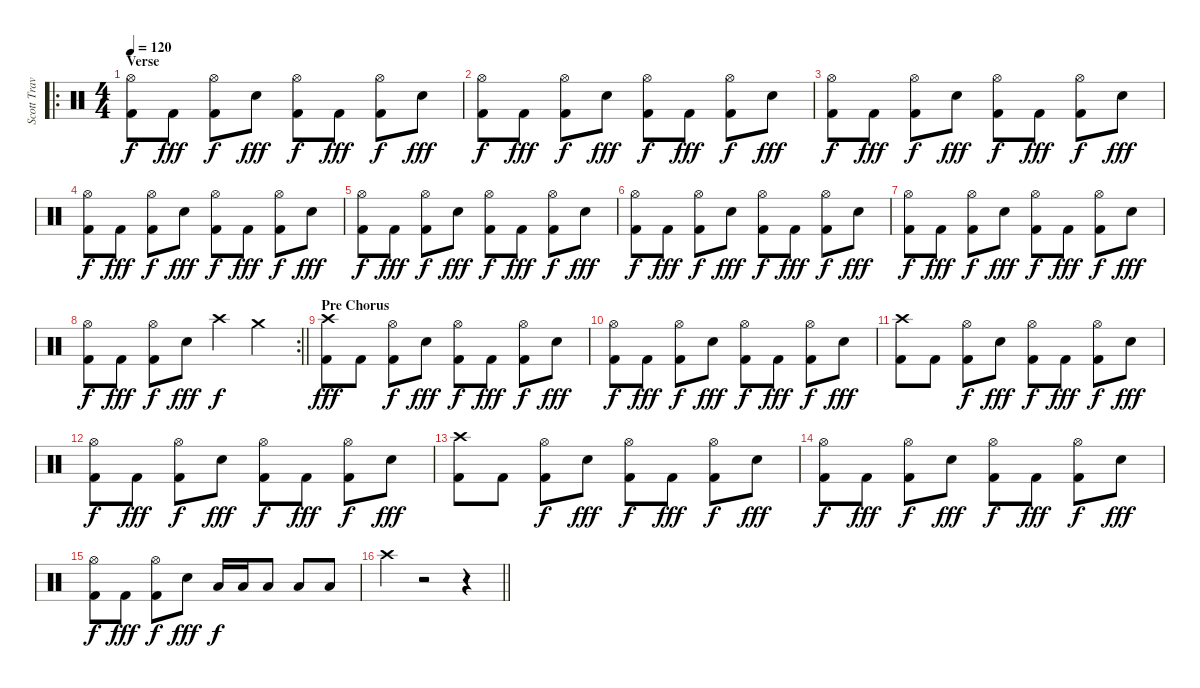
\track ("Scott Travis" "Scott Trav") {instrument percussion}
\staff {score}
\articulation defaults
\ro
\ts (4 4)
\section ("" "Verse")
\tempo 120
\clef neutral
\ks c
("Hi-Hat (open)" "Kick (hit) 2").8{dy f} "Kick (hit) 2".8{dy fff} ("Hi-Hat (open)" "Kick (hit) 2").8{dy f} "Electric Snare (hit)".8{dy fff} ("Hi-Hat (open)" "Kick (hit) 2").8{dy f} "Kick (hit) 2".8{dy fff} ("Hi-Hat (open)" "Kick (hit) 2").8{dy f} "Electric Snare (hit)".8{dy fff} |
("Hi-Hat (open)" "Kick (hit) 2").8{dy f} "Kick (hit) 2".8{dy fff} ("Hi-Hat (open)" "Kick (hit) 2").8{dy f} "Electric Snare (hit)".8{dy fff} ("Hi-Hat (open)" "Kick (hit) 2").8{dy f} "Kick (hit) 2".8{dy fff} ("Hi-Hat (open)" "Kick (hit) 2").8{dy f} "Electric Snare (hit)".8{dy fff} |
("Hi-Hat (open)" "Kick (hit) 2").8{dy f} "Kick (hit) 2".8{dy fff} ("Hi-Hat (open)" "Kick (hit) 2").8{dy f} "Electric Snare (hit)".8{dy fff} ("Hi-Hat (open)" "Kick (hit) 2").8{dy f} "Kick (hit) 2".8{dy fff} ("Hi-Hat (open)" "Kick (hit) 2").8{dy f} "Electric Snare (hit)".8{dy fff} |
("Hi-Hat (open)" "Kick (hit) 2").8{dy f} "Kick (hit) 2".8{dy fff} ("Hi-Hat (open)" "Kick (hit) 2").8{dy f} "Electric Snare (hit)".8{dy fff} ("Hi-Hat (open)" "Kick (hit) 2").8{dy f} "Kick (hit) 2".8{dy fff} ("Hi-Hat (open)" "Kick (hit) 2").8{dy f} "Electric Snare (hit)".8{dy fff} |
("Hi-Hat (open)" "Kick (hit) 2").8{dy f} "Kick (hit) 2".8{dy fff} ("Hi-Hat (open)" "Kick (hit) 2").8{dy f} "Electric Snare (hit)".8{dy fff} ("Hi-Hat (open)" "Kick (hit) 2").8{dy f} "Kick (hit) 2".8{dy fff} ("Hi-Hat (open)" "Kick (hit) 2").8{dy f} "Electric Snare (hit)".8{dy fff} |
("Hi-Hat (open)" "Kick (hit) 2").8{dy f} "Kick (hit) 2".8{dy fff} ("Hi-Hat (open)" "Kick (hit) 2").8{dy f} "Electric Snare (hit)".8{dy fff} ("Hi-Hat (open)" "Kick (hit) 2").8{dy f} "Kick (hit) 2".8{dy fff} ("Hi-Hat (open)" "Kick (hit) 2").8{dy f} "Electric Snare (hit)".8{dy fff} |
("Hi-Hat (open)" "Kick (hit) 2").8{dy f} "Kick (hit) 2".8{dy fff} ("Hi-Hat (open)" "Kick (hit) 2").8{dy f} "Electric Snare (hit)".8{dy fff} ("Hi-Hat (open)" "Kick (hit) 2").8{dy f} "Kick (hit) 2".8{dy fff} ("Hi-Hat (open)" "Kick (hit) 2").8{dy f} "Electric Snare (hit)".8{dy fff} |
\rc 2
\barLineRight lightlight
("Hi-Hat (open)" "Kick (hit) 2").8{dy f} "Kick (hit) 2".8{dy fff} ("Hi-Hat (open)" "Kick (hit) 2").8{dy f} "Electric Snare (hit)".8{dy fff} "Crash high (hit)".4{dy f} "Crash medium (hit)".4 |
\section ("" "Pre Chorus")
("Crash high (hit)" "Kick (hit) 2").8{dy fff} "Kick (hit) 2".8 ("Hi-Hat (open)" "Kick (hit) 2").8{dy f} "Electric Snare (hit)".8{dy fff} ("Hi-Hat (open)" "Kick (hit) 2").8{dy f} "Kick (hit) 2".8{dy fff} ("Hi-Hat (open)" "Kick (hit) 2").8{dy f} "Electric Snare (hit)".8{dy fff} |
("Hi-Hat (open)" "Kick (hit) 2").8{dy f} "Kick (hit) 2".8{dy fff} ("Hi-Hat (open)" "Kick (hit) 2").8{dy f} "Electric Snare (hit)".8{dy fff} ("Hi-Hat (open)" "Kick (hit) 2").8{dy f} "Kick (hit) 2".8{dy fff} ("Hi-Hat (open)" "Kick (hit) 2").8{dy f} "Electric Snare (hit)".8{dy fff} |
("Crash high (hit)" "Kick (hit) 2").8 "Kick (hit) 2".8 ("Hi-Hat (open)" "Kick (hit) 2").8{dy f} "Electric Snare (hit)".8{dy fff} ("Hi-Hat (open)" "Kick (hit) 2").8{dy f} "Kick (hit) 2".8{dy fff} ("Hi-Hat (open)" "Kick (hit) 2").8{dy f} "Electric Snare (hit)".8{dy fff} |
("Hi-Hat (open)" "Kick (hit) 2").8{dy f} "Kick (hit) 2".8{dy fff} ("Hi-Hat (open)" "Kick (hit) 2").8{dy f} "Electric Snare (hit)".8{dy fff} ("Hi-Hat (open)" "Kick (hit) 2").8{dy f} "Kick (hit) 2".8{dy fff} ("Hi-Hat (open)" "Kick (hit) 2").8{dy f} "Electric Snare (hit)".8{dy fff} |
("Crash high (hit)" "Kick (hit) 2").8 "Kick (hit) 2".8 ("Hi-Hat (open)" "Kick (hit) 2").8{dy f} "Electric Snare (hit)".8{dy fff} ("Hi-Hat (open)" "Kick (hit) 2").8{dy f} "Kick (hit) 2".8{dy fff} ("Hi-Hat (open)" "Kick (hit) 2").8{dy f} "Electric Snare (hit)".8{dy fff} |
("Hi-Hat (open)" "Kick (hit) 2").8{dy f} "Kick (hit) 2".8{dy fff} ("Hi-Hat (open)" "Kick (hit) 2").8{dy f} "Electric Snare (hit)".8{dy fff} ("Hi-Hat (open)" "Kick (hit) 2").8{dy f} "Kick (hit) 2".8{dy fff} ("Hi-Hat (open)" "Kick (hit) 2").8{dy f} "Electric Snare (hit)".8{dy fff} |
("Hi-Hat (open)" "Kick (hit) 2").8{dy f} "Kick (hit) 2".8{dy fff} ("Hi-Hat (open)" "Kick (hit) 2").8{dy f} "Electric Snare (hit)".8{dy fff} "Low Tom (hit)".16{dy f} "Low Tom (hit)".16 "Low Tom (hit)".8 "Low Tom (hit)".8 "Low Tom (hit)".8 |
\barLineRight lightlight "Crash high (hit)".4
r.2 r.4
